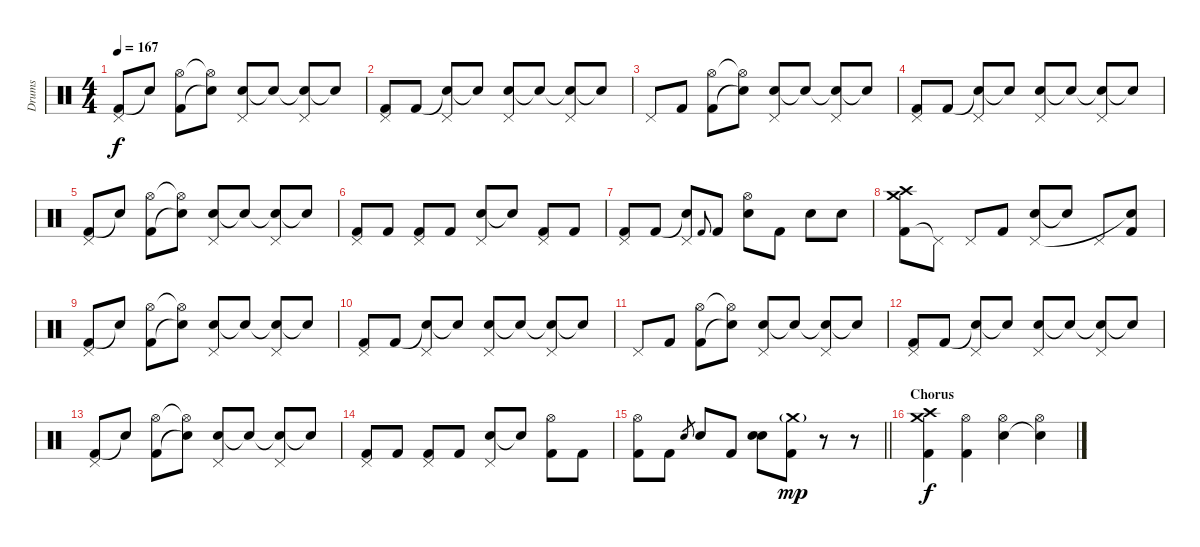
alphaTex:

\track ("Drums" "Drums") {instrument percussion}
\staff {score}
\articulation defaults
\ts (4 4)
\tempo 167
\clef neutral
\ks c
("Kick (hit) 2" "Pedal Hi-Hat (hit)").8{dy f} "Snare (hit)"{t}.8 ("Kick (hit) 2" "Hi-Hat (open)").8 ("Snare (hit)"{t} "Hi-Hat (open)"{t}).8 ("Electric Snare (hit)" "Pedal Hi-Hat (hit)").8 "Snare (hit)"{t}.8 ("Snare (hit)"{t} "Pedal Hi-Hat (hit)").8 "Snare (hit)"{t}.8 |
("Kick (hit) 2" "Pedal Hi-Hat (hit)").8 "Kick (hit) 2".8 ("Snare (hit)"{t} "Pedal Hi-Hat (hit)").8 "Snare (hit)"{t}.8 ("Electric Snare (hit)" "Pedal Hi-Hat (hit)").8 "Snare (hit)"{t}.8 ("Snare (hit)"{t} "Pedal Hi-Hat (hit)").8 "Snare (hit)"{t}.8 |
"Pedal Hi-Hat (hit)".8 "Kick (hit) 2".8 ("Kick (hit) 2" "Hi-Hat (open)").8 ("Snare (hit)"{t} "Hi-Hat (open)"{t}).8 ("Electric Snare (hit)" "Pedal Hi-Hat (hit)").8 "Snare (hit)"{t}.8 ("Snare (hit)"{t} "Pedal Hi-Hat (hit)").8 "Snare (hit)"{t}.8 |
("Kick (hit) 2" "Pedal Hi-Hat (hit)").8 "Kick (hit) 2".8 ("Snare (hit)"{t} "Pedal Hi-Hat (hit)").8 "Snare (hit)"{t}.8 ("Electric Snare (hit)" "Pedal Hi-Hat (hit)").8 "Snare (hit)"{t}.8 ("Snare (hit)"{t} "Pedal Hi-Hat (hit)").8 "Snare (hit)"{t}.8 |
("Kick (hit) 2" "Pedal Hi-Hat (hit)").8 "Snare (hit)"{t}.8 ("Kick (hit) 2" "Hi-Hat (open)").8 ("Snare (hit)"{t} "Hi-Hat (open)"{t}).8 ("Electric Snare (hit)" "Pedal Hi-Hat (hit)").8 "Snare (hit)"{t}.8 ("Snare (hit)"{t} "Pedal Hi-Hat (hit)").8 "Snare (hit)"{t}.8 |
("Kick (hit) 2" "Pedal Hi-Hat (hit)").8 "Kick (hit) 2".8 ("Kick (hit) 2" "Pedal Hi-Hat (hit)").8 "Kick (hit) 2".8 ("Electric Snare (hit)" "Pedal Hi-Hat (hit)").8 "Snare (hit)"{t}.8 ("Kick (hit) 2" "Pedal Hi-Hat (hit)").8 "Kick (hit) 2".8 |
("Kick (hit) 2" "Pedal Hi-Hat (hit)").8 "Kick (hit) 2".8 ("Snare (hit)"{t} "Pedal Hi-Hat (hit)").8 "Kick (hit) 2".8{gr onbeat} "Kick (hit) 2".8 ("Electric Snare (hit)" "Hi-Hat (open)").8 "Kick (hit) 2".8 "Electric Snare (hit)".8 "Electric Snare (hit)".8 |
("Kick (hit) 2" "Crash medium (hit)" "Crash high (hit)").8 "Pedal Hi-Hat (hit)"{t}.8 "Pedal Hi-Hat (hit)".8 "Kick (hit) 2".8 ("Electric Snare (hit)" "Pedal Hi-Hat (hit)").8 "Snare (hit)"{t}.8 "Pedal Hi-Hat (hit)".8 ("Kick (hit) 2" "Snare (hit)"{t}).8 |
("Kick (hit) 2" "Pedal Hi-Hat (hit)").8 "Snare (hit)"{t}.8 ("Kick (hit) 2" "Hi-Hat (open)").8 ("Snare (hit)"{t} "Hi-Hat (open)"{t}).8 ("Electric Snare (hit)" "Pedal Hi-Hat (hit)").8 "Snare (hit)"{t}.8 ("Snare (hit)"{t} "Pedal Hi-Hat (hit)").8 "Snare (hit)"{t}.8 |
("Kick (hit) 2" "Pedal Hi-Hat (hit)").8 "Kick (hit) 2".8 ("Snare (hit)"{t} "Pedal Hi-Hat (hit)").8 "Snare (hit)"{t}.8 ("Electric Snare (hit)" "Pedal Hi-Hat (hit)").8 "Snare (hit)"{t}.8 ("Snare (hit)"{t} "Pedal Hi-Hat (hit)").8 "Snare (hit)"{t}.8 |
"Pedal Hi-Hat (hit)".8 "Kick (hit) 2".8 ("Kick (hit) 2" "Hi-Hat (open)").8 ("Snare (hit)"{t} "Hi-Hat (open)"{t}).8 ("Electric Snare (hit)" "Pedal Hi-Hat (hit)").8 "Snare (hit)"{t}.8 ("Snare (hit)"{t} "Pedal Hi-Hat (hit)").8 "Snare (hit)"{t}.8 |
("Kick (hit) 2" "Pedal Hi-Hat (hit)").8 "Kick (hit) 2".8 ("Snare (hit)"{t} "Pedal Hi-Hat (hit)").8 "Snare (hit)"{t}.8 ("Electric Snare (hit)" "Pedal Hi-Hat (hit)").8 "Snare (hit)"{t}.8 ("Snare (hit)"{t} "Pedal Hi-Hat (hit)").8 "Snare (hit)"{t}.8 |
("Kick (hit) 2" "Pedal Hi-Hat (hit)").8 "Snare (hit)"{t}.8 ("Kick (hit) 2" "Hi-Hat (open)").8 ("Snare (hit)"{t} "Hi-Hat (open)"{t}).8 ("Electric Snare (hit)" "Pedal Hi-Hat (hit)").8 "Snare (hit)"{t}.8 ("Snare (hit)"{t} "Pedal Hi-Hat (hit)").8 "Snare (hit)"{t}.8 |
("Kick (hit) 2" "Pedal Hi-Hat (hit)").8 "Kick (hit) 2".8 ("Kick (hit) 2" "Pedal Hi-Hat (hit)").8 "Kick (hit) 2".8 ("Electric Snare (hit)" "Pedal Hi-Hat (hit)").8 "Snare (hit)"{t}.8 ("Kick (hit) 2" "Hi-Hat (open)").8 "Kick (hit) 2".8 |
\barLineRight lightlight
("Kick (hit) 2" "Hi-Hat (open)").8 "Kick (hit) 2".8 "Electric Snare (hit)".8{gr} "Electric Snare (hit)".8 "Kick (hit) 2".8 ("Electric Snare (hit)" "Electric Snare (hit)").8 ("Kick (hit) 2" "Crash medium (hit)"{g}).8{dy mp} r.8 r.8 |
\section ("" "Chorus")
("Kick (hit) 2" "Crash medium (hit)" "Crash high (hit)").4{dy f} ("Kick (hit) 2" "Hi-Hat (open)").4 ("Electric Snare (hit)" "Hi-Hat (open)").4 ("Snare (hit)"{t} "Hi-Hat (open)").4
